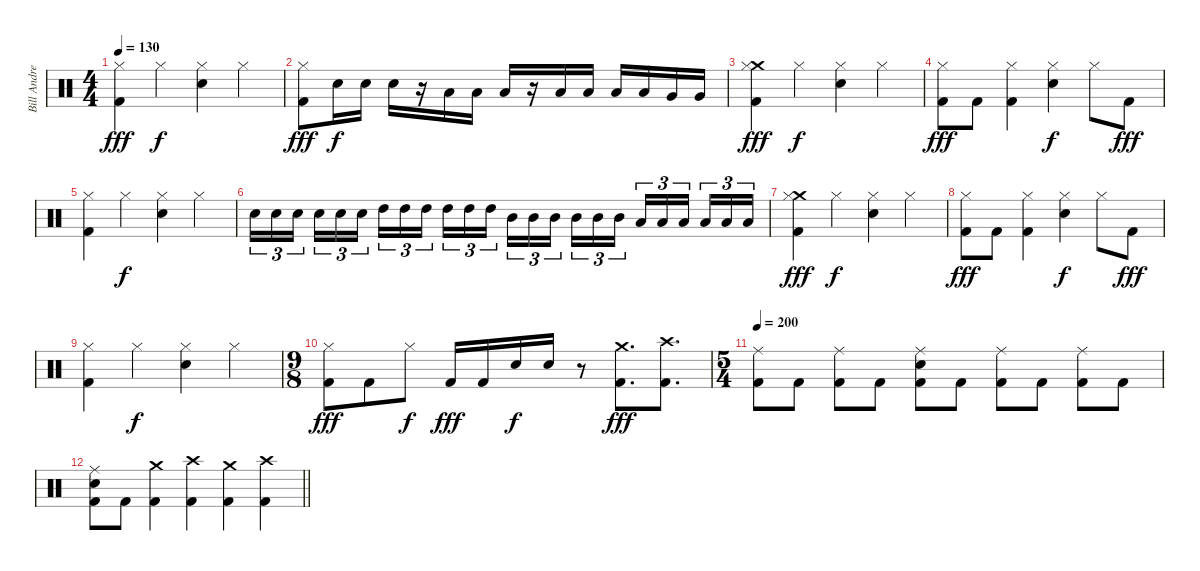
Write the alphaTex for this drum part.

\track ("Bill Andrews" "Bill Andre") {instrument percussion}
\staff {score}
\articulation defaults
\ts (4 4)
\tempo 130
\clef neutral
\ks c
("Hi-Hat (closed)" "Kick (hit) 2").4{dy fff} "Hi-Hat (closed)".4{dy f} ("Hi-Hat (closed)" "Electric Snare (hit)").4 "Hi-Hat (closed)".4 |
("Hi-Hat (closed)" "Kick (hit) 2").8{dy fff} "Electric Snare (hit)".16{dy f} "Electric Snare (hit)".16 "Electric Snare (hit)".16 r.16 "Low Tom (hit)".16 "Low Tom (hit)".16 "Low Tom (hit)".16 r.16 "Low Tom (hit)".16 "Low Tom (hit)".16 "Low Tom (hit)".16 "Low Tom (hit)".16 "Very Low Tom (hit)".16 "Very Low Tom (hit)".16 |
("Crash medium (hit)" "Hi-Hat (closed)" "Kick (hit) 2").4{dy fff} "Hi-Hat (closed)".4{dy f} ("Hi-Hat (closed)" "Electric Snare (hit)").4 "Hi-Hat (closed)".4 |
("Hi-Hat (closed)" "Kick (hit) 2").8{dy fff} "Kick (hit) 2".8 ("Hi-Hat (closed)" "Kick (hit) 2").4 ("Hi-Hat (closed)" "Electric Snare (hit)").4{dy f} "Hi-Hat (closed)".8 "Kick (hit) 2".8{dy fff} |
("Hi-Hat (closed)" "Kick (hit) 2").4 "Hi-Hat (closed)".4{dy f} ("Hi-Hat (closed)" "Electric Snare (hit)").4 "Hi-Hat (closed)".4 |
"Electric Snare (hit)".16{tu (3 2)} "Electric Snare (hit)".16{tu (3 2)} "Electric Snare (hit)".16{tu (3 2) beam splitsecondary} "Electric Snare (hit)".16{tu (3 2)} "Electric Snare (hit)".16{tu (3 2)} "Electric Snare (hit)".16{tu (3 2)} "High Tom (hit)".16{tu (3 2)} "High Tom (hit)".16{tu (3 2)} "High Tom (hit)".16{tu (3 2) beam splitsecondary} "High Tom (hit)".16{tu (3 2)} "High Tom (hit)".16{tu (3 2)} "High Tom (hit)".16{tu (3 2)} "Mid Tom (hit)".16{tu (3 2)} "Mid Tom (hit)".16{tu (3 2)} "Mid Tom (hit)".16{tu (3 2) beam splitsecondary} "Mid Tom (hit)".16{tu (3 2)} "Mid Tom (hit)".16{tu (3 2)} "Mid Tom (hit)".16{tu (3 2)} "Low Tom (hit)".16{tu (3 2)} "Low Tom (hit)".16{tu (3 2)} "Low Tom (hit)".16{tu (3 2) beam splitsecondary} "Low Tom (hit)".16{tu (3 2)} "Low Tom (hit)".16{tu (3 2)} "Low Tom (hit)".16{tu (3 2)} |
("Crash medium (hit)" "Hi-Hat (closed)" "Kick (hit) 2").4{dy fff} "Hi-Hat (closed)".4{dy f} ("Hi-Hat (closed)" "Electric Snare (hit)").4 "Hi-Hat (closed)".4 |
("Hi-Hat (closed)" "Kick (hit) 2").8{dy fff} "Kick (hit) 2".8 ("Hi-Hat (closed)" "Kick (hit) 2").4 ("Hi-Hat (closed)" "Electric Snare (hit)").4{dy f} "Hi-Hat (closed)".8 "Kick (hit) 2".8{dy fff} |
("Hi-Hat (closed)" "Kick (hit) 2").4 "Hi-Hat (closed)".4{dy f} ("Hi-Hat (closed)" "Electric Snare (hit)").4 "Hi-Hat (closed)".4 |
\ts (9 8)
("Hi-Hat (closed)" "Kick (hit) 2").8{dy fff} "Kick (hit) 2".8 "Hi-Hat (closed)".8{dy f} "Kick (hit) 2".16{dy fff} "Kick (hit) 2".16 "Electric Snare (hit)".16{dy f} "Electric Snare (hit)".16 r.8 ("Crash medium (hit)" "Kick (hit) 2").8{d dy fff} ("Crash high (hit)" "Kick (hit) 2").8{d} |
\ts (5 4)
\tempo 200
("Ride (middle)" "Kick (hit) 2").8 "Kick (hit) 2".8 ("Ride (middle)" "Kick (hit) 2").8 "Kick (hit) 2".8 ("Ride (middle)" "Electric Snare (hit)" "Kick (hit) 2").8 "Kick (hit) 2".8 ("Ride (middle)" "Kick (hit) 2").8 "Kick (hit) 2".8 ("Ride (middle)" "Kick (hit) 2").8 "Kick (hit) 2".8 |
\barLineRight lightlight
("Ride (middle)" "Electric Snare (hit)" "Kick (hit) 2").8 "Kick (hit) 2".8 ("Crash medium (hit)" "Kick (hit) 2").4 ("Crash high (hit)" "Kick (hit) 2").4 ("Crash medium (hit)" "Kick (hit) 2").4 ("Crash high (hit)" "Kick (hit) 2").4
